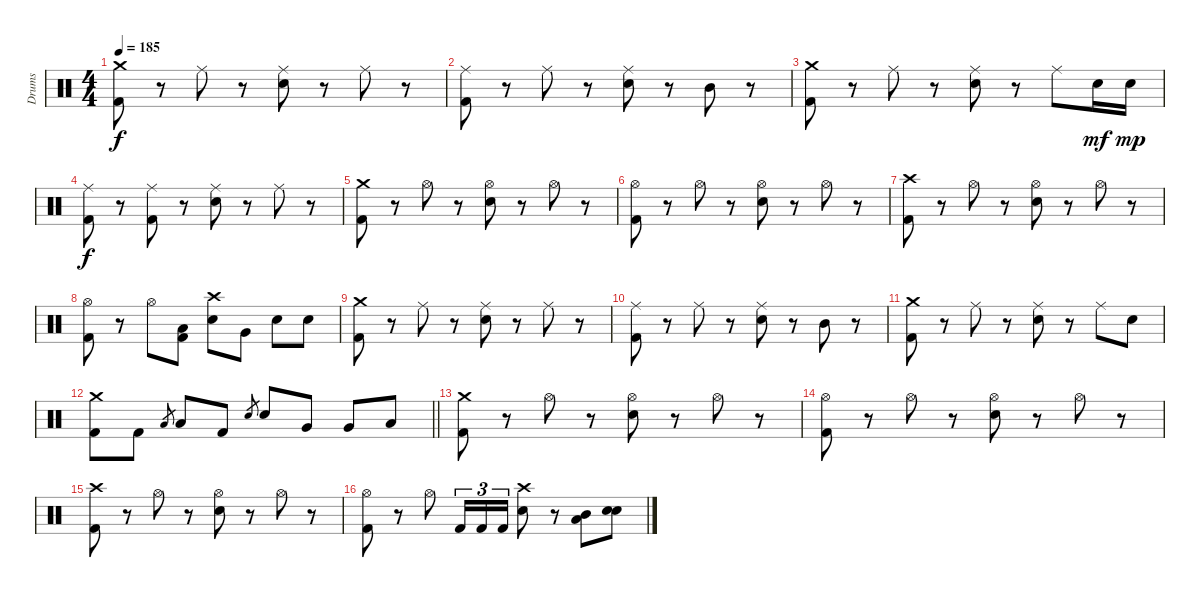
\track ("Drums" "Drums") {instrument percussion}
\staff {score}
\articulation defaults
\ts (4 4)
\tempo 185
\clef neutral
\ks c
("Crash medium (hit)" "Kick (hit) 2").8{dy f} r.8 "Ride (middle)".8 r.8 ("Ride (middle)" "Electric Snare (hit)").8 r.8 "Ride (middle)".8 r.8 |
("Ride (middle)" "Kick (hit) 2").8 r.8 "Ride (middle)".8 r.8 ("Ride (middle)" "Electric Snare (hit)").8 r.8 "Mid Tom (hit)".8 r.8 |
("Crash medium (hit)" "Kick (hit) 2").8 r.8 "Ride (middle)".8 r.8 ("Ride (middle)" "Electric Snare (hit)").8 r.8 "Ride (middle)".8 "Electric Snare (hit)".16{dy mf} "Electric Snare (hit)".16{dy mp} |
("Ride (middle)" "Kick (hit) 2").8{dy f} r.8 ("Ride (middle)" "Kick (hit) 2").8 r.8 ("Ride (middle)" "Electric Snare (hit)").8 r.8 "Ride (middle)".8 r.8 |
("Crash medium (hit)" "Kick (hit) 2").8 r.8 "Hi-Hat (open)".8 r.8 ("Hi-Hat (open)" "Electric Snare (hit)").8 r.8 "Hi-Hat (open)".8 r.8 |
("Hi-Hat (open)" "Kick (hit) 2").8 r.8 "Hi-Hat (open)".8 r.8 ("Hi-Hat (open)" "Electric Snare (hit)").8 r.8 "Hi-Hat (open)".8 r.8 |
("Crash high (hit)" "Kick (hit) 2").8 r.8 "Hi-Hat (open)".8 r.8 ("Hi-Hat (open)" "Electric Snare (hit)").8 r.8 "Hi-Hat (open)".8 r.8 |
("Hi-Hat (open)" "Kick (hit) 2").8 r.8 "Hi-Hat (open)".8 ("Low Tom (hit)" "Kick (hit) 2").8 ("Crash high (hit)" "Electric Snare (hit)").8 "Very Low Tom (hit)".8 "Electric Snare (hit)".8 "Electric Snare (hit)".8 |
("Crash medium (hit)" "Kick (hit) 2").8 r.8 "Ride (middle)".8 r.8 ("Ride (middle)" "Electric Snare (hit)").8 r.8 "Ride (middle)".8 r.8 |
("Ride (middle)" "Kick (hit) 2").8 r.8 "Ride (middle)".8 r.8 ("Ride (middle)" "Electric Snare (hit)").8 r.8 "Mid Tom (hit)".8 r.8 |
("Crash medium (hit)" "Kick (hit) 2").8 r.8 "Ride (middle)".8 r.8 ("Ride (middle)" "Electric Snare (hit)").8 r.8 "Ride (middle)".8 "Electric Snare (hit)".8 |
\barLineRight lightlight
("Crash medium (hit)" "Kick (hit) 2").8 "Kick (hit) 2".8 "Low Tom (hit)".8{gr} "Low Tom (hit)".8 "Kick (hit) 2".8 "Electric Snare (hit)".8{gr} "Electric Snare (hit)".8 "Very Low Tom (hit)".8 "Very Low Tom (hit)".8 "Low Floor Tom (hit)".8 |
("Crash medium (hit)" "Kick (hit) 2").8 r.8 "Hi-Hat (open)".8 r.8 ("Hi-Hat (open)" "Electric Snare (hit)").8 r.8 "Hi-Hat (open)".8 r.8 |
("Hi-Hat (open)" "Kick (hit) 2").8 r.8 "Hi-Hat (open)".8 r.8 ("Hi-Hat (open)" "Electric Snare (hit)").8 r.8 "Hi-Hat (open)".8 r.8 |
("Crash high (hit)" "Kick (hit) 2").8 r.8 "Hi-Hat (open)".8 r.8 ("Hi-Hat (open)" "Electric Snare (hit)").8 r.8 "Hi-Hat (open)".8 r.8 |
("Hi-Hat (open)" "Kick (hit) 2").8 r.8 "Hi-Hat (open)".8 "Kick (hit) 2".16{tu (3 2)} "Kick (hit) 2".16{tu (3 2)} "Kick (hit) 2".16{tu (3 2)} ("Crash high (hit)" "Electric Snare (hit)").8 r.8 ("Mid Tom (hit)" "Low Tom (hit)").8 ("Electric Snare (hit)" "Electric Snare (hit)").8
